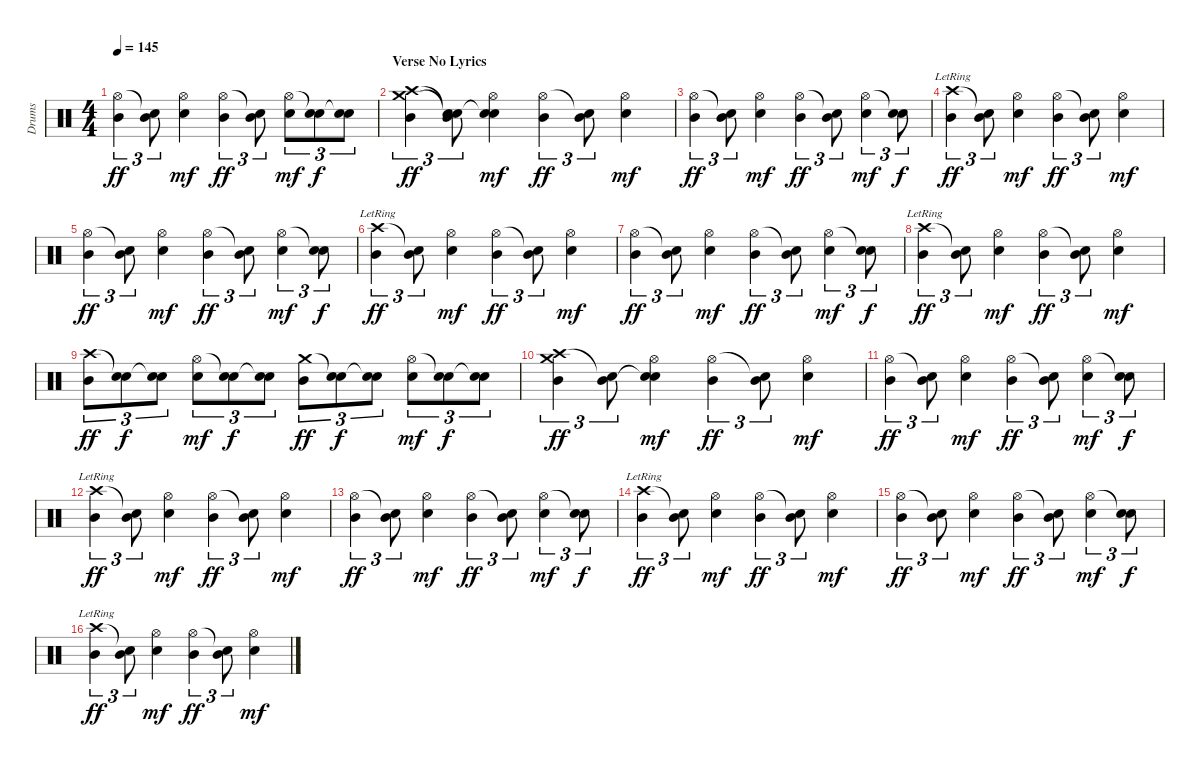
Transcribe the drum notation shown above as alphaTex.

\track ("Drums" "Drums") {instrument percussion}
\staff {score}
\articulation defaults
\ts (4 4)
\tempo 145
\clef neutral
\ks c
("Hi-Hat (open)" "Mid Tom (hit)").4{tu (3 2) dy ff} ("Snare (hit)"{t} "Mid Tom (hit)").8{tu (3 2)} ("Hi-Hat (open)" "Electric Snare (hit)").4{dy mf} ("Hi-Hat (open)" "Mid Tom (hit)").4{tu (3 2) dy ff} ("Snare (hit)"{t} "Mid Tom (hit)").8{tu (3 2)} ("Hi-Hat (open)" "Electric Snare (hit)").8{tu (3 2) dy mf} ("Snare (hit)"{t} "Electric Snare (hit)").8{tu (3 2) dy f} ("Snare (hit)"{t} "Electric Snare (hit)").8{tu (3 2)} |
\section ("" "Verse No Lyrics")
("Crash high (hit)" "Crash medium (hit)" "Mid Tom (hit)").4{tu (3 2) dy ff} ("Snare (hit)"{t} "Snare (hit)"{t} "Mid Tom (hit)").8{tu (3 2)} ("Hi-Hat (open)" "Snare (hit)"{t} "Electric Snare (hit)").4{dy mf} ("Hi-Hat (open)" "Mid Tom (hit)").4{tu (3 2) dy ff} ("Snare (hit)"{t} "Mid Tom (hit)").8{tu (3 2)} ("Hi-Hat (open)" "Electric Snare (hit)").4{dy mf} |
("Hi-Hat (open)" "Mid Tom (hit)").4{tu (3 2) dy ff} ("Snare (hit)"{t} "Mid Tom (hit)").8{tu (3 2)} ("Hi-Hat (open)" "Electric Snare (hit)").4{dy mf} ("Hi-Hat (open)" "Mid Tom (hit)").4{tu (3 2) dy ff} ("Snare (hit)"{t} "Mid Tom (hit)").8{tu (3 2)} ("Hi-Hat (open)" "Electric Snare (hit)").4{tu (3 2) dy mf} ("Snare (hit)"{t} "Electric Snare (hit)").8{tu (3 2) dy f} |
("Crash high (hit)"{lr} "Mid Tom (hit)").4{tu (3 2) dy ff} ("Snare (hit)"{t} "Mid Tom (hit)").8{tu (3 2)} ("Hi-Hat (open)" "Electric Snare (hit)").4{dy mf} ("Hi-Hat (open)" "Mid Tom (hit)").4{tu (3 2) dy ff} ("Snare (hit)"{t} "Mid Tom (hit)").8{tu (3 2)} ("Hi-Hat (open)" "Electric Snare (hit)").4{dy mf} |
("Hi-Hat (open)" "Mid Tom (hit)").4{tu (3 2) dy ff} ("Snare (hit)"{t} "Mid Tom (hit)").8{tu (3 2)} ("Hi-Hat (open)" "Electric Snare (hit)").4{dy mf} ("Hi-Hat (open)" "Mid Tom (hit)").4{tu (3 2) dy ff} ("Snare (hit)"{t} "Mid Tom (hit)").8{tu (3 2)} ("Hi-Hat (open)" "Electric Snare (hit)").4{tu (3 2) dy mf} ("Snare (hit)"{t} "Electric Snare (hit)").8{tu (3 2) dy f} |
("Crash high (hit)"{lr} "Mid Tom (hit)").4{tu (3 2) dy ff} ("Snare (hit)"{t} "Mid Tom (hit)").8{tu (3 2)} ("Hi-Hat (open)" "Electric Snare (hit)").4{dy mf} ("Hi-Hat (open)" "Mid Tom (hit)").4{tu (3 2) dy ff} ("Snare (hit)"{t} "Mid Tom (hit)").8{tu (3 2)} ("Hi-Hat (open)" "Electric Snare (hit)").4{dy mf} |
("Hi-Hat (open)" "Mid Tom (hit)").4{tu (3 2) dy ff} ("Snare (hit)"{t} "Mid Tom (hit)").8{tu (3 2)} ("Hi-Hat (open)" "Electric Snare (hit)").4{dy mf} ("Hi-Hat (open)" "Mid Tom (hit)").4{tu (3 2) dy ff} ("Snare (hit)"{t} "Mid Tom (hit)").8{tu (3 2)} ("Hi-Hat (open)" "Electric Snare (hit)").4{tu (3 2) dy mf} ("Snare (hit)"{t} "Electric Snare (hit)").8{tu (3 2) dy f} |
("Crash high (hit)"{lr} "Mid Tom (hit)").4{tu (3 2) dy ff} ("Snare (hit)"{t} "Mid Tom (hit)").8{tu (3 2)} ("Hi-Hat (open)" "Electric Snare (hit)").4{dy mf} ("Hi-Hat (open)" "Mid Tom (hit)").4{tu (3 2) dy ff} ("Snare (hit)"{t} "Mid Tom (hit)").8{tu (3 2)} ("Hi-Hat (open)" "Electric Snare (hit)").4{dy mf} |
("Crash high (hit)" "Mid Tom (hit)").8{tu (3 2) dy ff} ("Snare (hit)"{t} "Electric Snare (hit)").8{tu (3 2) dy f} ("Snare (hit)"{t} "Electric Snare (hit)").8{tu (3 2)} ("Hi-Hat (open)" "Electric Snare (hit)").8{tu (3 2) dy mf} ("Snare (hit)"{t} "Electric Snare (hit)").8{tu (3 2) dy f} ("Snare (hit)"{t} "Electric Snare (hit)").8{tu (3 2)} ("Crash medium (hit)" "Mid Tom (hit)").8{tu (3 2) dy ff} ("Snare (hit)"{t} "Electric Snare (hit)").8{tu (3 2) dy f} ("Snare (hit)"{t} "Electric Snare (hit)").8{tu (3 2)} ("Hi-Hat (open)" "Electric Snare (hit)").8{tu (3 2) dy mf} ("Snare (hit)"{t} "Electric Snare (hit)").8{tu (3 2) dy f} ("Snare (hit)"{t} "Electric Snare (hit)").8{tu (3 2)} |
("Crash high (hit)" "Crash medium (hit)" "Mid Tom (hit)").4{tu (3 2) dy ff} ("Snare (hit)"{t} "Mid Tom (hit)").8{tu (3 2)} ("Hi-Hat (open)" "Snare (hit)"{t} "Electric Snare (hit)").4{dy mf} ("Hi-Hat (open)" "Mid Tom (hit)").4{tu (3 2) dy ff} ("Snare (hit)"{t} "Mid Tom (hit)").8{tu (3 2)} ("Hi-Hat (open)" "Electric Snare (hit)").4{dy mf} |
("Hi-Hat (open)" "Mid Tom (hit)").4{tu (3 2) dy ff} ("Snare (hit)"{t} "Mid Tom (hit)").8{tu (3 2)} ("Hi-Hat (open)" "Electric Snare (hit)").4{dy mf} ("Hi-Hat (open)" "Mid Tom (hit)").4{tu (3 2) dy ff} ("Snare (hit)"{t} "Mid Tom (hit)").8{tu (3 2)} ("Hi-Hat (open)" "Electric Snare (hit)").4{tu (3 2) dy mf} ("Snare (hit)"{t} "Electric Snare (hit)").8{tu (3 2) dy f} |
("Crash high (hit)"{lr} "Mid Tom (hit)").4{tu (3 2) dy ff} ("Snare (hit)"{t} "Mid Tom (hit)").8{tu (3 2)} ("Hi-Hat (open)" "Electric Snare (hit)").4{dy mf} ("Hi-Hat (open)" "Mid Tom (hit)").4{tu (3 2) dy ff} ("Snare (hit)"{t} "Mid Tom (hit)").8{tu (3 2)} ("Hi-Hat (open)" "Electric Snare (hit)").4{dy mf} |
("Hi-Hat (open)" "Mid Tom (hit)").4{tu (3 2) dy ff} ("Snare (hit)"{t} "Mid Tom (hit)").8{tu (3 2)} ("Hi-Hat (open)" "Electric Snare (hit)").4{dy mf} ("Hi-Hat (open)" "Mid Tom (hit)").4{tu (3 2) dy ff} ("Snare (hit)"{t} "Mid Tom (hit)").8{tu (3 2)} ("Hi-Hat (open)" "Electric Snare (hit)").4{tu (3 2) dy mf} ("Snare (hit)"{t} "Electric Snare (hit)").8{tu (3 2) dy f} |
("Crash high (hit)"{lr} "Mid Tom (hit)").4{tu (3 2) dy ff} ("Snare (hit)"{t} "Mid Tom (hit)").8{tu (3 2)} ("Hi-Hat (open)" "Electric Snare (hit)").4{dy mf} ("Hi-Hat (open)" "Mid Tom (hit)").4{tu (3 2) dy ff} ("Snare (hit)"{t} "Mid Tom (hit)").8{tu (3 2)} ("Hi-Hat (open)" "Electric Snare (hit)").4{dy mf} |
("Hi-Hat (open)" "Mid Tom (hit)").4{tu (3 2) dy ff} ("Snare (hit)"{t} "Mid Tom (hit)").8{tu (3 2)} ("Hi-Hat (open)" "Electric Snare (hit)").4{dy mf} ("Hi-Hat (open)" "Mid Tom (hit)").4{tu (3 2) dy ff} ("Snare (hit)"{t} "Mid Tom (hit)").8{tu (3 2)} ("Hi-Hat (open)" "Electric Snare (hit)").4{tu (3 2) dy mf} ("Snare (hit)"{t} "Electric Snare (hit)").8{tu (3 2) dy f} |
("Crash high (hit)"{lr} "Mid Tom (hit)").4{tu (3 2) dy ff} ("Snare (hit)"{t} "Mid Tom (hit)").8{tu (3 2)} ("Hi-Hat (open)" "Electric Snare (hit)").4{dy mf} ("Hi-Hat (open)" "Mid Tom (hit)").4{tu (3 2) dy ff} ("Snare (hit)"{t} "Mid Tom (hit)").8{tu (3 2)} ("Hi-Hat (open)" "Electric Snare (hit)").4{dy mf}
